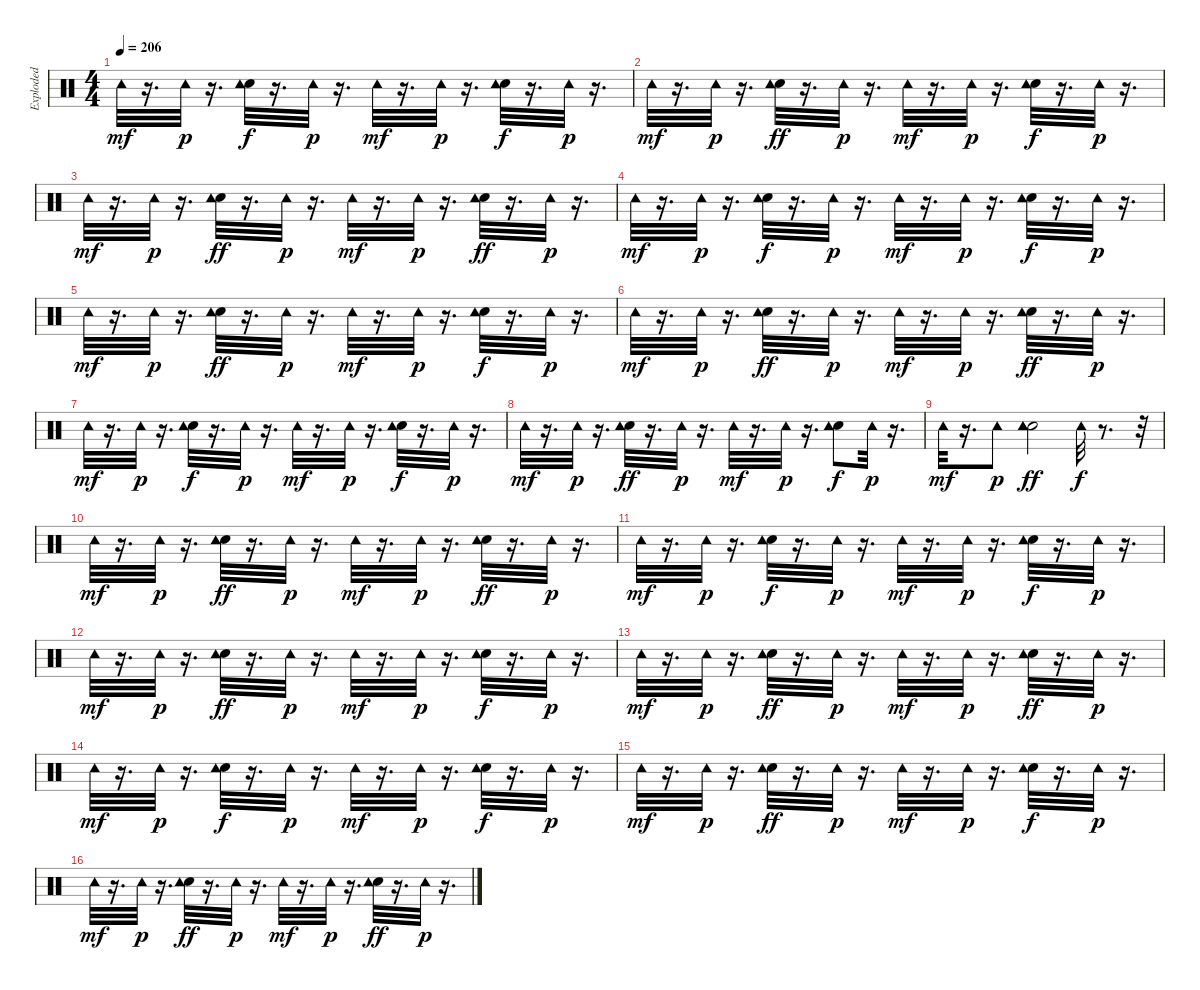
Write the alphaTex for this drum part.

\track ("Exploded" "Exploded") {instrument percussion}
\staff {score}
\articulation defaults
\ts (4 4)
\tempo 206
\clef neutral
\ks c "Tambourine (hit)".32{dy mf}
r.16{d} "Tambourine (hit)".32{dy p} r.16{d} ("Hand Clap (hit)" "Tambourine (hit)").32{dy f} r.16{d} "Tambourine (hit)".32{dy p} r.16{d} "Tambourine (hit)".32{dy mf} r.16{d} "Tambourine (hit)".32{dy p} r.16{d} ("Hand Clap (hit)" "Tambourine (hit)").32{dy f} r.16{d} "Tambourine (hit)".32{dy p} r.16{d} |
"Tambourine (hit)".32{dy mf} r.16{d} "Tambourine (hit)".32{dy p} r.16{d} ("Hand Clap (hit)" "Tambourine (hit)").32{dy ff} r.16{d} "Tambourine (hit)".32{dy p} r.16{d} "Tambourine (hit)".32{dy mf} r.16{d} "Tambourine (hit)".32{dy p} r.16{d} ("Hand Clap (hit)" "Tambourine (hit)").32{dy f} r.16{d} "Tambourine (hit)".32{dy p} r.16{d} |
"Tambourine (hit)".32{dy mf} r.16{d} "Tambourine (hit)".32{dy p} r.16{d} ("Hand Clap (hit)" "Tambourine (hit)").32{dy ff} r.16{d} "Tambourine (hit)".32{dy p} r.16{d} "Tambourine (hit)".32{dy mf} r.16{d} "Tambourine (hit)".32{dy p} r.16{d} ("Hand Clap (hit)" "Tambourine (hit)").32{dy ff} r.16{d} "Tambourine (hit)".32{dy p} r.16{d} |
"Tambourine (hit)".32{dy mf} r.16{d} "Tambourine (hit)".32{dy p} r.16{d} ("Hand Clap (hit)" "Tambourine (hit)").32{dy f} r.16{d} "Tambourine (hit)".32{dy p} r.16{d} "Tambourine (hit)".32{dy mf} r.16{d} "Tambourine (hit)".32{dy p} r.16{d} ("Hand Clap (hit)" "Tambourine (hit)").32{dy f} r.16{d} "Tambourine (hit)".32{dy p} r.16{d} |
"Tambourine (hit)".32{dy mf} r.16{d} "Tambourine (hit)".32{dy p} r.16{d} ("Hand Clap (hit)" "Tambourine (hit)").32{dy ff} r.16{d} "Tambourine (hit)".32{dy p} r.16{d} "Tambourine (hit)".32{dy mf} r.16{d} "Tambourine (hit)".32{dy p} r.16{d} ("Hand Clap (hit)" "Tambourine (hit)").32{dy f} r.16{d} "Tambourine (hit)".32{dy p} r.16{d} |
"Tambourine (hit)".32{dy mf} r.16{d} "Tambourine (hit)".32{dy p} r.16{d} ("Hand Clap (hit)" "Tambourine (hit)").32{dy ff} r.16{d} "Tambourine (hit)".32{dy p} r.16{d} "Tambourine (hit)".32{dy mf} r.16{d} "Tambourine (hit)".32{dy p} r.16{d} ("Hand Clap (hit)" "Tambourine (hit)").32{dy ff} r.16{d} "Tambourine (hit)".32{dy p} r.16{d} |
"Tambourine (hit)".32{dy mf} r.16{d} "Tambourine (hit)".32{dy p} r.16{d} ("Hand Clap (hit)" "Tambourine (hit)").32{dy f} r.16{d} "Tambourine (hit)".32{dy p} r.16{d} "Tambourine (hit)".32{dy mf} r.16{d} "Tambourine (hit)".32{dy p} r.16{d} ("Hand Clap (hit)" "Tambourine (hit)").32{dy f} r.16{d} "Tambourine (hit)".32{dy p} r.16{d} |
"Tambourine (hit)".32{dy mf} r.16{d} "Tambourine (hit)".32{dy p} r.16{d} ("Hand Clap (hit)" "Tambourine (hit)").32{dy ff} r.16{d} "Tambourine (hit)".32{dy p} r.16{d} "Tambourine (hit)".32{dy mf} r.16{d} "Tambourine (hit)".32{dy p} r.16{d} ("Hand Clap (hit)" "Tambourine (hit)").8{dy f} "Tambourine (hit)".32{dy p} r.16{d} |
"Tambourine (hit)".32{dy mf} r.16{d} "Tambourine (hit)".8{dy p} ("Hand Clap (hit)" "Tambourine (hit)" "Tambourine (hit)").2{dy ff} "Tambourine (hit)".32{dy f} r.8{d} r.32 |
"Tambourine (hit)".32{dy mf} r.16{d} "Tambourine (hit)".32{dy p} r.16{d} ("Hand Clap (hit)" "Tambourine (hit)").32{dy ff} r.16{d} "Tambourine (hit)".32{dy p} r.16{d} "Tambourine (hit)".32{dy mf} r.16{d} "Tambourine (hit)".32{dy p} r.16{d} ("Hand Clap (hit)" "Tambourine (hit)").32{dy ff} r.16{d} "Tambourine (hit)".32{dy p} r.16{d} |
"Tambourine (hit)".32{dy mf} r.16{d} "Tambourine (hit)".32{dy p} r.16{d} ("Hand Clap (hit)" "Tambourine (hit)").32{dy f} r.16{d} "Tambourine (hit)".32{dy p} r.16{d} "Tambourine (hit)".32{dy mf} r.16{d} "Tambourine (hit)".32{dy p} r.16{d} ("Hand Clap (hit)" "Tambourine (hit)").32{dy f} r.16{d} "Tambourine (hit)".32{dy p} r.16{d} |
"Tambourine (hit)".32{dy mf} r.16{d} "Tambourine (hit)".32{dy p} r.16{d} ("Hand Clap (hit)" "Tambourine (hit)").32{dy ff} r.16{d} "Tambourine (hit)".32{dy p} r.16{d} "Tambourine (hit)".32{dy mf} r.16{d} "Tambourine (hit)".32{dy p} r.16{d} ("Hand Clap (hit)" "Tambourine (hit)").32{dy f} r.16{d} "Tambourine (hit)".32{dy p} r.16{d} |
"Tambourine (hit)".32{dy mf} r.16{d} "Tambourine (hit)".32{dy p} r.16{d} ("Hand Clap (hit)" "Tambourine (hit)").32{dy ff} r.16{d} "Tambourine (hit)".32{dy p} r.16{d} "Tambourine (hit)".32{dy mf} r.16{d} "Tambourine (hit)".32{dy p} r.16{d} ("Hand Clap (hit)" "Tambourine (hit)").32{dy ff} r.16{d} "Tambourine (hit)".32{dy p} r.16{d} |
"Tambourine (hit)".32{dy mf} r.16{d} "Tambourine (hit)".32{dy p} r.16{d} ("Hand Clap (hit)" "Tambourine (hit)").32{dy f} r.16{d} "Tambourine (hit)".32{dy p} r.16{d} "Tambourine (hit)".32{dy mf} r.16{d} "Tambourine (hit)".32{dy p} r.16{d} ("Hand Clap (hit)" "Tambourine (hit)").32{dy f} r.16{d} "Tambourine (hit)".32{dy p} r.16{d} |
"Tambourine (hit)".32{dy mf} r.16{d} "Tambourine (hit)".32{dy p} r.16{d} ("Hand Clap (hit)" "Tambourine (hit)").32{dy ff} r.16{d} "Tambourine (hit)".32{dy p} r.16{d} "Tambourine (hit)".32{dy mf} r.16{d} "Tambourine (hit)".32{dy p} r.16{d} ("Hand Clap (hit)" "Tambourine (hit)").32{dy f} r.16{d} "Tambourine (hit)".32{dy p} r.16{d} |
"Tambourine (hit)".32{dy mf} r.16{d} "Tambourine (hit)".32{dy p} r.16{d} ("Hand Clap (hit)" "Tambourine (hit)").32{dy ff} r.16{d} "Tambourine (hit)".32{dy p} r.16{d} "Tambourine (hit)".32{dy mf} r.16{d} "Tambourine (hit)".32{dy p} r.16{d} ("Hand Clap (hit)" "Tambourine (hit)").32{dy ff} r.16{d} "Tambourine (hit)".32{dy p} r.16{d}
